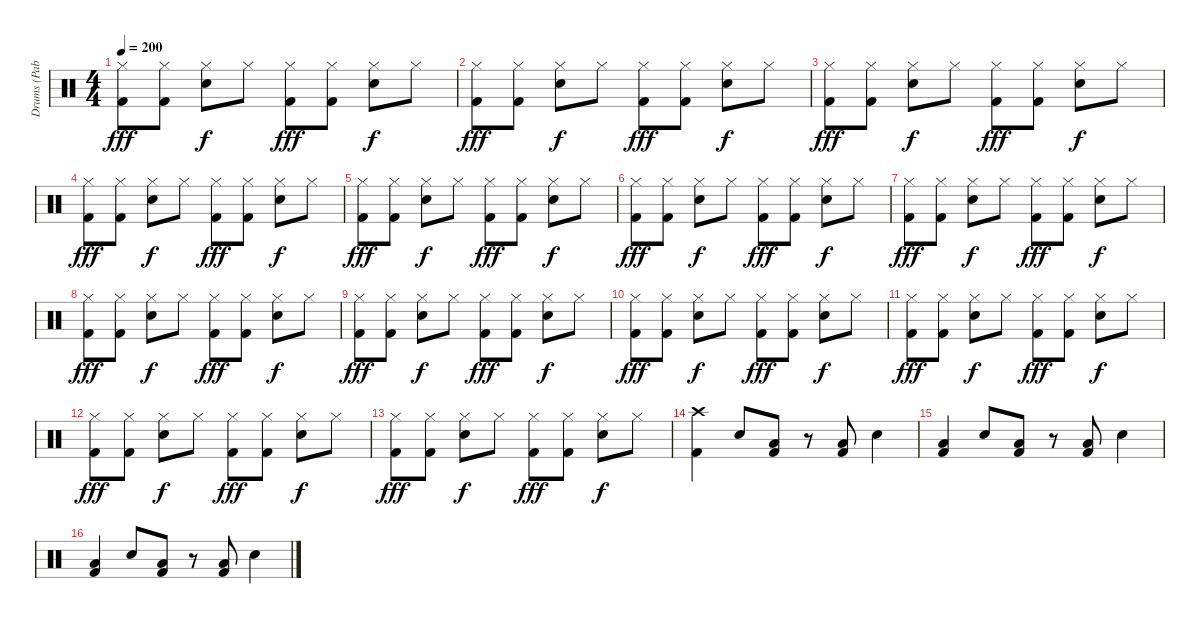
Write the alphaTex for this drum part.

\track ("Drums (Pablo)" "Drums (Pab") {instrument percussion}
\staff {score}
\articulation defaults
\ts (4 4)
\tempo 200
\clef neutral
\ks c
("Hi-Hat (closed)" "Kick (hit) 2").8{dy fff} ("Hi-Hat (closed)" "Kick (hit) 2").8 ("Hi-Hat (closed)" "Electric Snare (hit)").8{dy f} "Hi-Hat (closed)".8 ("Hi-Hat (closed)" "Kick (hit) 2").8{dy fff} ("Hi-Hat (closed)" "Kick (hit) 2").8 ("Hi-Hat (closed)" "Electric Snare (hit)").8{dy f} "Hi-Hat (closed)".8 |
("Hi-Hat (closed)" "Kick (hit) 2").8{dy fff} ("Hi-Hat (closed)" "Kick (hit) 2").8 ("Hi-Hat (closed)" "Electric Snare (hit)").8{dy f} "Hi-Hat (closed)".8 ("Hi-Hat (closed)" "Kick (hit) 2").8{dy fff} ("Hi-Hat (closed)" "Kick (hit) 2").8 ("Hi-Hat (closed)" "Electric Snare (hit)").8{dy f} "Hi-Hat (closed)".8 |
("Hi-Hat (closed)" "Kick (hit) 2").8{dy fff} ("Hi-Hat (closed)" "Kick (hit) 2").8 ("Hi-Hat (closed)" "Electric Snare (hit)").8{dy f} "Hi-Hat (closed)".8 ("Hi-Hat (closed)" "Kick (hit) 2").8{dy fff} ("Hi-Hat (closed)" "Kick (hit) 2").8 ("Hi-Hat (closed)" "Electric Snare (hit)").8{dy f} "Hi-Hat (closed)".8 |
("Hi-Hat (closed)" "Kick (hit) 2").8{dy fff} ("Hi-Hat (closed)" "Kick (hit) 2").8 ("Hi-Hat (closed)" "Electric Snare (hit)").8{dy f} "Hi-Hat (closed)".8 ("Hi-Hat (closed)" "Kick (hit) 2").8{dy fff} ("Hi-Hat (closed)" "Kick (hit) 2").8 ("Hi-Hat (closed)" "Electric Snare (hit)").8{dy f} "Hi-Hat (closed)".8 |
("Hi-Hat (closed)" "Kick (hit) 2").8{dy fff} ("Hi-Hat (closed)" "Kick (hit) 2").8 ("Hi-Hat (closed)" "Electric Snare (hit)").8{dy f} "Hi-Hat (closed)".8 ("Hi-Hat (closed)" "Kick (hit) 2").8{dy fff} ("Hi-Hat (closed)" "Kick (hit) 2").8 ("Hi-Hat (closed)" "Electric Snare (hit)").8{dy f} "Hi-Hat (closed)".8 |
("Hi-Hat (closed)" "Kick (hit) 2").8{dy fff} ("Hi-Hat (closed)" "Kick (hit) 2").8 ("Hi-Hat (closed)" "Electric Snare (hit)").8{dy f} "Hi-Hat (closed)".8 ("Hi-Hat (closed)" "Kick (hit) 2").8{dy fff} ("Hi-Hat (closed)" "Kick (hit) 2").8 ("Hi-Hat (closed)" "Electric Snare (hit)").8{dy f} "Hi-Hat (closed)".8 |
("Hi-Hat (closed)" "Kick (hit) 2").8{dy fff} ("Hi-Hat (closed)" "Kick (hit) 2").8 ("Hi-Hat (closed)" "Electric Snare (hit)").8{dy f} "Hi-Hat (closed)".8 ("Hi-Hat (closed)" "Kick (hit) 2").8{dy fff} ("Hi-Hat (closed)" "Kick (hit) 2").8 ("Hi-Hat (closed)" "Electric Snare (hit)").8{dy f} "Hi-Hat (closed)".8 |
("Hi-Hat (closed)" "Kick (hit) 2").8{dy fff} ("Hi-Hat (closed)" "Kick (hit) 2").8 ("Hi-Hat (closed)" "Electric Snare (hit)").8{dy f} "Hi-Hat (closed)".8 ("Hi-Hat (closed)" "Kick (hit) 2").8{dy fff} ("Hi-Hat (closed)" "Kick (hit) 2").8 ("Hi-Hat (closed)" "Electric Snare (hit)").8{dy f} "Hi-Hat (closed)".8 |
("Hi-Hat (closed)" "Kick (hit) 2").8{dy fff} ("Hi-Hat (closed)" "Kick (hit) 2").8 ("Hi-Hat (closed)" "Electric Snare (hit)").8{dy f} "Hi-Hat (closed)".8 ("Hi-Hat (closed)" "Kick (hit) 2").8{dy fff} ("Hi-Hat (closed)" "Kick (hit) 2").8 ("Hi-Hat (closed)" "Electric Snare (hit)").8{dy f} "Hi-Hat (closed)".8 |
("Hi-Hat (closed)" "Kick (hit) 2").8{dy fff} ("Hi-Hat (closed)" "Kick (hit) 2").8 ("Hi-Hat (closed)" "Electric Snare (hit)").8{dy f} "Hi-Hat (closed)".8 ("Hi-Hat (closed)" "Kick (hit) 2").8{dy fff} ("Hi-Hat (closed)" "Kick (hit) 2").8 ("Hi-Hat (closed)" "Electric Snare (hit)").8{dy f} "Hi-Hat (closed)".8 |
("Hi-Hat (closed)" "Kick (hit) 2").8{dy fff} ("Hi-Hat (closed)" "Kick (hit) 2").8 ("Hi-Hat (closed)" "Electric Snare (hit)").8{dy f} "Hi-Hat (closed)".8 ("Hi-Hat (closed)" "Kick (hit) 2").8{dy fff} ("Hi-Hat (closed)" "Kick (hit) 2").8 ("Hi-Hat (closed)" "Electric Snare (hit)").8{dy f} "Hi-Hat (closed)".8 |
("Hi-Hat (closed)" "Kick (hit) 2").8{dy fff} ("Hi-Hat (closed)" "Kick (hit) 2").8 ("Hi-Hat (closed)" "Electric Snare (hit)").8{dy f} "Hi-Hat (closed)".8 ("Hi-Hat (closed)" "Kick (hit) 2").8{dy fff} ("Hi-Hat (closed)" "Kick (hit) 2").8 ("Hi-Hat (closed)" "Electric Snare (hit)").8{dy f} "Hi-Hat (closed)".8 |
("Hi-Hat (closed)" "Kick (hit) 2").8{dy fff} ("Hi-Hat (closed)" "Kick (hit) 2").8 ("Hi-Hat (closed)" "Electric Snare (hit)").8{dy f} "Hi-Hat (closed)".8 ("Hi-Hat (closed)" "Kick (hit) 2").8{dy fff} ("Hi-Hat (closed)" "Kick (hit) 2").8 ("Hi-Hat (closed)" "Electric Snare (hit)").8{dy f} "Hi-Hat (closed)".8 |
("Crash high (hit)" "Kick (hit) 2").4 "Electric Snare (hit)".8 ("Low Tom (hit)" "Kick (hit) 2").8 r.8 ("Low Tom (hit)" "Kick (hit) 2").8 "Electric Snare (hit)".4 |
("Low Tom (hit)" "Kick (hit) 2").4 "Electric Snare (hit)".8 ("Low Tom (hit)" "Kick (hit) 2").8 r.8 ("Low Tom (hit)" "Kick (hit) 2").8 "Electric Snare (hit)".4 |
("Low Tom (hit)" "Kick (hit) 2").4 "Electric Snare (hit)".8 ("Low Tom (hit)" "Kick (hit) 2").8 r.8 ("Low Tom (hit)" "Kick (hit) 2").8 "Electric Snare (hit)".4
